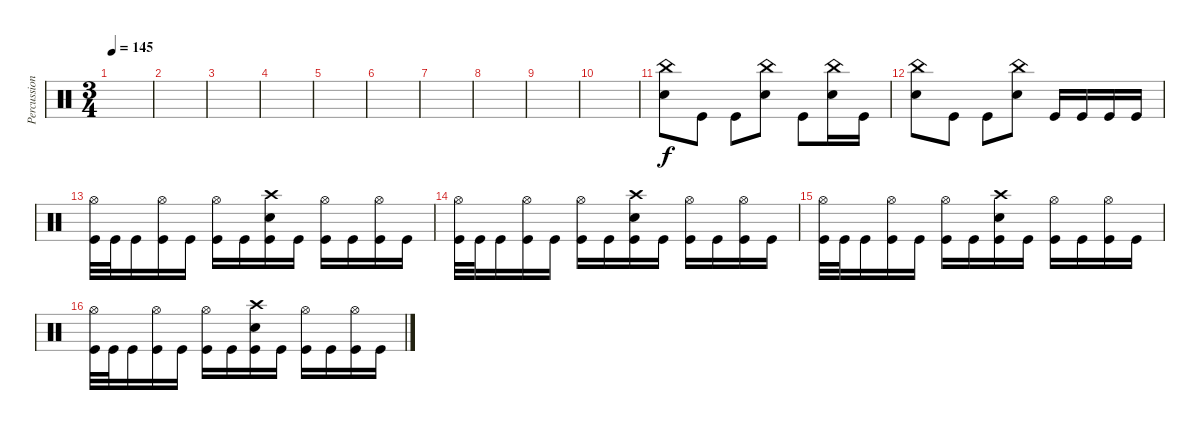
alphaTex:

\track ("Percussion" "Percussion") {instrument percussion}
\staff {score}
\articulation defaults
\ts (3 4)
\tempo 145
\clef neutral
\ks c
|
|
|
|
|
|
|
|
|
|
("China (hit)" "Electric Snare (hit)").8 "Kick (hit)".8 "Kick (hit)".8 ("China (hit)" "Electric Snare (hit)").8 "Kick (hit)".8 ("China (hit)" "Electric Snare (hit)").16 "Kick (hit)".16 |
("China (hit)" "Electric Snare (hit)").8 "Kick (hit)".8 "Kick (hit)".8 ("China (hit)" "Electric Snare (hit)").8 "Kick (hit)".16 "Kick (hit)".16 "Kick (hit)".16 "Kick (hit)".16 |
("Hi-Hat (open)" "Kick (hit)").32 "Kick (hit)".32 "Kick (hit)".16 ("Hi-Hat (open)" "Kick (hit)").16 "Kick (hit)".16 ("Hi-Hat (open)" "Kick (hit)").16 "Kick (hit)".16 ("Crash high (hit)" "Snare (hit) 2" "Kick (hit)").16 "Kick (hit)".16 ("Hi-Hat (open)" "Kick (hit)").16 "Kick (hit)".16 ("Hi-Hat (open)" "Kick (hit)").16 "Kick (hit)".16 |
("Hi-Hat (open)" "Kick (hit)").32 "Kick (hit)".32 "Kick (hit)".16 ("Hi-Hat (open)" "Kick (hit)").16 "Kick (hit)".16 ("Hi-Hat (open)" "Kick (hit)").16 "Kick (hit)".16 ("Crash high (hit)" "Snare (hit) 2" "Kick (hit)").16 "Kick (hit)".16 ("Hi-Hat (open)" "Kick (hit)").16 "Kick (hit)".16 ("Hi-Hat (open)" "Kick (hit)").16 "Kick (hit)".16 |
("Hi-Hat (open)" "Kick (hit)").32 "Kick (hit)".32 "Kick (hit)".16 ("Hi-Hat (open)" "Kick (hit)").16 "Kick (hit)".16 ("Hi-Hat (open)" "Kick (hit)").16 "Kick (hit)".16 ("Crash high (hit)" "Snare (hit) 2" "Kick (hit)").16 "Kick (hit)".16 ("Hi-Hat (open)" "Kick (hit)").16 "Kick (hit)".16 ("Hi-Hat (open)" "Kick (hit)").16 "Kick (hit)".16 |
("Hi-Hat (open)" "Kick (hit)").32 "Kick (hit)".32 "Kick (hit)".16 ("Hi-Hat (open)" "Kick (hit)").16 "Kick (hit)".16 ("Hi-Hat (open)" "Kick (hit)").16 "Kick (hit)".16 ("Crash high (hit)" "Snare (hit) 2" "Kick (hit)").16 "Kick (hit)".16 ("Hi-Hat (open)" "Kick (hit)").16 "Kick (hit)".16 ("Hi-Hat (open)" "Kick (hit)").16 "Kick (hit)".16
